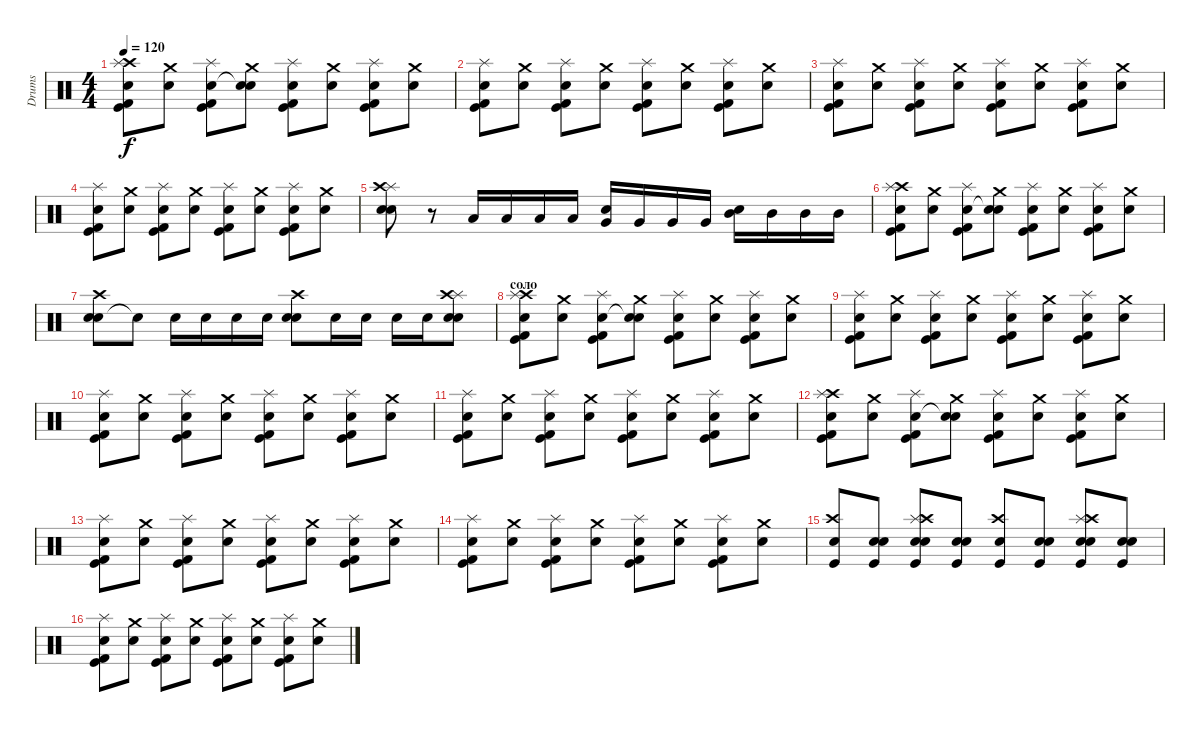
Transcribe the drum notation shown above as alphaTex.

\track ("Drums" "Drums") {instrument percussion}
\staff {score}
\articulation defaults
\ts (4 4)
\tempo 120
\clef neutral
\ks c
("Kick (hit)" "Crash high (hit)" "Electric Snare (hit)" "Kick (hit) 2" "Splash (hit)").8{dy f} ("Crash medium (hit)" "Snare (hit) 2").8 ("Kick (hit)" "Electric Snare (hit)" "Kick (hit) 2" "Splash (hit)").8 ("Crash medium (hit)" "Snare (hit)"{t} "Snare (hit) 2").8 ("Kick (hit)" "Electric Snare (hit)" "Kick (hit) 2" "Splash (hit)").8 ("Crash medium (hit)" "Snare (hit) 2").8 ("Kick (hit)" "Electric Snare (hit)" "Kick (hit) 2" "Splash (hit)").8 ("Crash medium (hit)" "Snare (hit) 2").8 |
("Kick (hit)" "Electric Snare (hit)" "Kick (hit) 2" "Splash (hit)").8 ("Crash medium (hit)" "Snare (hit) 2").8 ("Kick (hit)" "Electric Snare (hit)" "Kick (hit) 2" "Splash (hit)").8 ("Crash medium (hit)" "Snare (hit) 2").8 ("Kick (hit)" "Electric Snare (hit)" "Kick (hit) 2" "Splash (hit)").8 ("Crash medium (hit)" "Snare (hit) 2").8 ("Kick (hit)" "Electric Snare (hit)" "Kick (hit) 2" "Splash (hit)").8 ("Crash medium (hit)" "Snare (hit) 2").8 |
("Kick (hit)" "Electric Snare (hit)" "Kick (hit) 2" "Splash (hit)").8 ("Crash medium (hit)" "Snare (hit) 2").8 ("Kick (hit)" "Electric Snare (hit)" "Kick (hit) 2" "Splash (hit)").8 ("Crash medium (hit)" "Snare (hit) 2").8 ("Kick (hit)" "Electric Snare (hit)" "Kick (hit) 2" "Splash (hit)").8 ("Crash medium (hit)" "Snare (hit) 2").8 ("Kick (hit)" "Electric Snare (hit)" "Kick (hit) 2" "Splash (hit)").8 ("Crash medium (hit)" "Snare (hit) 2").8 |
("Kick (hit)" "Electric Snare (hit)" "Kick (hit) 2" "Splash (hit)").8 ("Crash medium (hit)" "Snare (hit) 2").8 ("Kick (hit)" "Electric Snare (hit)" "Kick (hit) 2" "Splash (hit)").8 ("Crash medium (hit)" "Snare (hit) 2").8 ("Kick (hit)" "Electric Snare (hit)" "Kick (hit) 2" "Splash (hit)").8 ("Crash medium (hit)" "Snare (hit) 2").8 ("Kick (hit)" "Electric Snare (hit)" "Kick (hit) 2" "Splash (hit)").8 ("Crash medium (hit)" "Snare (hit) 2").8 |
("Splash (hit)" "Snare (hit) 2" "Electric Snare (hit)" "Crash high (hit)").8 r.8 "Low Floor Tom (hit)".16 "Low Floor Tom (hit)".16 "Low Floor Tom (hit)".16 "Low Floor Tom (hit)".16 ("Snare (hit) 2" "Very Low Tom (hit)").16 "Very Low Tom (hit)".16 "Very Low Tom (hit)".16 "Very Low Tom (hit)".16 ("Electric Snare (hit)" "Mid Tom (hit)").16 "Mid Tom (hit)".16 "Mid Tom (hit)".16 "Mid Tom (hit)".16 |
("Kick (hit)" "Crash high (hit)" "Electric Snare (hit)" "Kick (hit) 2" "Splash (hit)").8 ("Crash medium (hit)" "Snare (hit) 2").8 ("Kick (hit)" "Electric Snare (hit)" "Kick (hit) 2" "Splash (hit)").8 ("Crash medium (hit)" "Snare (hit)"{t} "Snare (hit) 2").8 ("Kick (hit)" "Electric Snare (hit)" "Kick (hit) 2" "Splash (hit)").8 ("Crash medium (hit)" "Snare (hit) 2").8 ("Kick (hit)" "Electric Snare (hit)" "Kick (hit) 2" "Splash (hit)").8 ("Crash medium (hit)" "Snare (hit) 2").8 |
("Electric Snare (hit)" "Snare (hit) 2" "Crash high (hit)").8 "Snare (hit)"{t}.8 "Snare (hit) 2".16 "Electric Snare (hit)".16 "Snare (hit) 2".16 "Electric Snare (hit)".16 ("Electric Snare (hit)" "Snare (hit) 2" "Crash high (hit)").8 "Snare (hit) 2".16 "Electric Snare (hit)".16 "Snare (hit) 2".16 "Electric Snare (hit)".16 ("Splash (hit)" "Electric Snare (hit)" "Snare (hit) 2" "Crash high (hit)").8 |
\section ("" "соло")
("Kick (hit)" "Crash high (hit)" "Electric Snare (hit)" "Kick (hit) 2" "Splash (hit)").8 ("Crash medium (hit)" "Snare (hit) 2").8 ("Kick (hit)" "Electric Snare (hit)" "Kick (hit) 2" "Splash (hit)").8 ("Crash medium (hit)" "Snare (hit)"{t} "Snare (hit) 2").8 ("Kick (hit)" "Electric Snare (hit)" "Kick (hit) 2" "Splash (hit)").8 ("Crash medium (hit)" "Snare (hit) 2").8 ("Kick (hit)" "Electric Snare (hit)" "Kick (hit) 2" "Splash (hit)").8 ("Crash medium (hit)" "Snare (hit) 2").8 |
("Kick (hit)" "Electric Snare (hit)" "Kick (hit) 2" "Splash (hit)").8 ("Crash medium (hit)" "Snare (hit) 2").8 ("Kick (hit)" "Electric Snare (hit)" "Kick (hit) 2" "Splash (hit)").8 ("Crash medium (hit)" "Snare (hit) 2").8 ("Kick (hit)" "Electric Snare (hit)" "Kick (hit) 2" "Splash (hit)").8 ("Crash medium (hit)" "Snare (hit) 2").8 ("Kick (hit)" "Electric Snare (hit)" "Kick (hit) 2" "Splash (hit)").8 ("Crash medium (hit)" "Snare (hit) 2").8 |
("Kick (hit)" "Electric Snare (hit)" "Kick (hit) 2" "Splash (hit)").8 ("Crash medium (hit)" "Snare (hit) 2").8 ("Kick (hit)" "Electric Snare (hit)" "Kick (hit) 2" "Splash (hit)").8 ("Crash medium (hit)" "Snare (hit) 2").8 ("Kick (hit)" "Electric Snare (hit)" "Kick (hit) 2" "Splash (hit)").8 ("Crash medium (hit)" "Snare (hit) 2").8 ("Kick (hit)" "Electric Snare (hit)" "Kick (hit) 2" "Splash (hit)").8 ("Crash medium (hit)" "Snare (hit) 2").8 |
("Kick (hit)" "Electric Snare (hit)" "Kick (hit) 2" "Splash (hit)").8 ("Crash medium (hit)" "Snare (hit) 2").8 ("Kick (hit)" "Electric Snare (hit)" "Kick (hit) 2" "Splash (hit)").8 ("Crash medium (hit)" "Snare (hit) 2").8 ("Kick (hit)" "Electric Snare (hit)" "Kick (hit) 2" "Splash (hit)").8 ("Crash medium (hit)" "Snare (hit) 2").8 ("Kick (hit)" "Electric Snare (hit)" "Kick (hit) 2" "Splash (hit)").8 ("Crash medium (hit)" "Snare (hit) 2").8 |
("Kick (hit)" "Crash high (hit)" "Electric Snare (hit)" "Kick (hit) 2" "Splash (hit)").8 ("Crash medium (hit)" "Snare (hit) 2").8 ("Kick (hit)" "Electric Snare (hit)" "Kick (hit) 2" "Splash (hit)").8 ("Crash medium (hit)" "Snare (hit)"{t} "Snare (hit) 2").8 ("Kick (hit)" "Electric Snare (hit)" "Kick (hit) 2" "Splash (hit)").8 ("Crash medium (hit)" "Snare (hit) 2").8 ("Kick (hit)" "Electric Snare (hit)" "Kick (hit) 2" "Splash (hit)").8 ("Crash medium (hit)" "Snare (hit) 2").8 |
("Kick (hit)" "Electric Snare (hit)" "Kick (hit) 2" "Splash (hit)").8 ("Crash medium (hit)" "Snare (hit) 2").8 ("Kick (hit)" "Electric Snare (hit)" "Kick (hit) 2" "Splash (hit)").8 ("Crash medium (hit)" "Snare (hit) 2").8 ("Kick (hit)" "Electric Snare (hit)" "Kick (hit) 2" "Splash (hit)").8 ("Crash medium (hit)" "Snare (hit) 2").8 ("Kick (hit)" "Electric Snare (hit)" "Kick (hit) 2" "Splash (hit)").8 ("Crash medium (hit)" "Snare (hit) 2").8 |
("Kick (hit)" "Electric Snare (hit)" "Kick (hit) 2" "Splash (hit)").8 ("Crash medium (hit)" "Snare (hit) 2").8 ("Kick (hit)" "Electric Snare (hit)" "Kick (hit) 2" "Splash (hit)").8 ("Crash medium (hit)" "Snare (hit) 2").8 ("Kick (hit)" "Electric Snare (hit)" "Kick (hit) 2" "Splash (hit)").8 ("Crash medium (hit)" "Snare (hit) 2").8 ("Kick (hit)" "Electric Snare (hit)" "Kick (hit) 2" "Splash (hit)").8 ("Crash medium (hit)" "Snare (hit) 2").8 |
("Kick (hit)" "Electric Snare (hit)" "Crash high (hit)").8 ("Kick (hit)" "Electric Snare (hit)" "Snare (hit) 2").8 ("Kick (hit)" "Splash (hit)" "Electric Snare (hit)" "Crash high (hit)" "Snare (hit) 2").8 ("Kick (hit)" "Electric Snare (hit)" "Snare (hit) 2").8 ("Kick (hit)" "Electric Snare (hit)" "Crash high (hit)").8 ("Kick (hit)" "Electric Snare (hit)" "Snare (hit) 2").8 ("Kick (hit)" "Splash (hit)" "Electric Snare (hit)" "Crash high (hit)" "Snare (hit) 2").8 ("Kick (hit)" "Electric Snare (hit)" "Snare (hit) 2").8 |
("Kick (hit)" "Electric Snare (hit)" "Kick (hit) 2" "Splash (hit)").8 ("Crash medium (hit)" "Snare (hit) 2").8 ("Kick (hit)" "Electric Snare (hit)" "Kick (hit) 2" "Splash (hit)").8 ("Crash medium (hit)" "Snare (hit) 2").8 ("Kick (hit)" "Electric Snare (hit)" "Kick (hit) 2" "Splash (hit)").8 ("Crash medium (hit)" "Snare (hit) 2").8 ("Kick (hit)" "Electric Snare (hit)" "Kick (hit) 2" "Splash (hit)").8 ("Crash medium (hit)" "Snare (hit) 2").8
